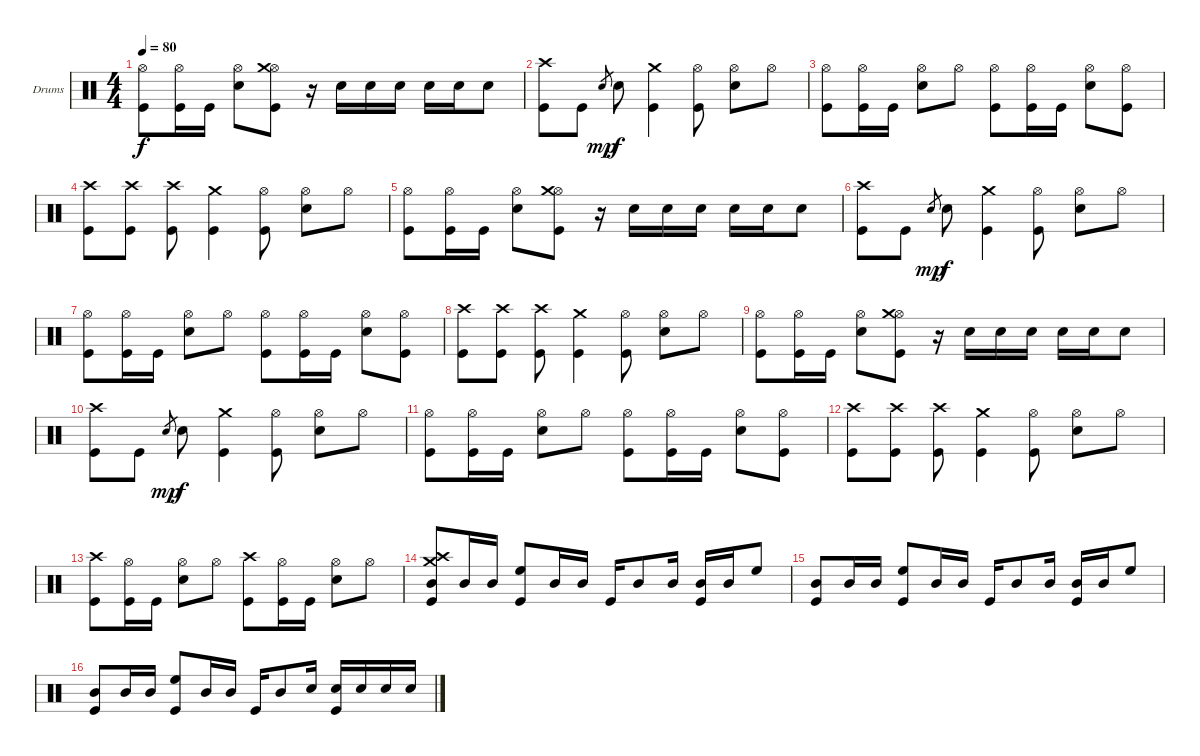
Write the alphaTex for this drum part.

\defaultSystemsLayout 4
\bracketExtendMode groupsimilarinstruments
\firstSystemTrackNameOrientation horizontal
\otherSystemsTrackNameOrientation horizontal
\track ("Drumkit" "Drums") {instrument percussion}
\staff {score}
\articulation defaults
\ts (4 4)
\tempo 80
\clef neutral
\scale
1.02648
\ks c
("Hi-Hat (open)" "Kick (hit)").8{dy f} ("Hi-Hat (open)" "Kick (hit)").16 "Kick (hit)".16 ("Hi-Hat (open)" "Snare (hit) 2").8 ("Hi-Hat (open)" "Crash medium (hit)" "Kick (hit)").8 r.16 "Snare (hit) 2".16 "Snare (hit) 2".16 "Snare (hit) 2".16 "Snare (hit) 2".16 "Snare (hit) 2".16 "Snare (hit) 2".8 |
\scale
0.973518 ("Crash high (hit)" "Kick (hit)").8 "Kick (hit)".8 "Snare (hit) 2".8{gr dy mp} "Snare (hit) 2".8{dy f} ("Crash medium (hit)" "Kick (hit)").4 ("Hi-Hat (open)" "Kick (hit)").8 ("Hi-Hat (open)" "Snare (hit) 2").8 "Hi-Hat (open)".8 |
\scale
1.02648 ("Hi-Hat (open)" "Kick (hit)").8 ("Hi-Hat (open)" "Kick (hit)").16 "Kick (hit)".16 ("Hi-Hat (open)" "Snare (hit) 2").8 "Hi-Hat (open)".8 ("Hi-Hat (open)" "Kick (hit)").8 ("Hi-Hat (open)" "Kick (hit)").16 "Kick (hit)".16 ("Hi-Hat (open)" "Snare (hit) 2").8 ("Hi-Hat (open)" "Kick (hit)").8 |
\scale
0.973518 ("Crash high (hit)" "Kick (hit)").8 ("Crash high (hit)" "Kick (hit)").8 ("Crash high (hit)" "Kick (hit)").8 ("Crash medium (hit)" "Kick (hit)").4 ("Hi-Hat (open)" "Kick (hit)").8 ("Hi-Hat (open)" "Snare (hit) 2").8 "Hi-Hat (open)".8 |
\scale
1.02648 ("Hi-Hat (open)" "Kick (hit)").8 ("Hi-Hat (open)" "Kick (hit)").16 "Kick (hit)".16 ("Hi-Hat (open)" "Snare (hit) 2").8 ("Hi-Hat (open)" "Crash medium (hit)" "Kick (hit)").8 r.16 "Snare (hit) 2".16 "Snare (hit) 2".16 "Snare (hit) 2".16 "Snare (hit) 2".16 "Snare (hit) 2".16 "Snare (hit) 2".8 |
\scale
0.973518 ("Crash high (hit)" "Kick (hit)").8 "Kick (hit)".8 "Snare (hit) 2".8{gr dy mp} "Snare (hit) 2".8{dy f} ("Crash medium (hit)" "Kick (hit)").4 ("Hi-Hat (open)" "Kick (hit)").8 ("Hi-Hat (open)" "Snare (hit) 2").8 "Hi-Hat (open)".8 |
\scale
1.02648 ("Hi-Hat (open)" "Kick (hit)").8 ("Hi-Hat (open)" "Kick (hit)").16 "Kick (hit)".16 ("Hi-Hat (open)" "Snare (hit) 2").8 "Hi-Hat (open)".8 ("Hi-Hat (open)" "Kick (hit)").8 ("Hi-Hat (open)" "Kick (hit)").16 "Kick (hit)".16 ("Hi-Hat (open)" "Snare (hit) 2").8 ("Hi-Hat (open)" "Kick (hit)").8 |
\scale
0.973518 ("Crash high (hit)" "Kick (hit)").8 ("Crash high (hit)" "Kick (hit)").8 ("Crash high (hit)" "Kick (hit)").8 ("Crash medium (hit)" "Kick (hit)").4 ("Hi-Hat (open)" "Kick (hit)").8 ("Hi-Hat (open)" "Snare (hit) 2").8 "Hi-Hat (open)".8 |
\scale
1.02648 ("Hi-Hat (open)" "Kick (hit)").8 ("Hi-Hat (open)" "Kick (hit)").16 "Kick (hit)".16 ("Hi-Hat (open)" "Snare (hit) 2").8 ("Hi-Hat (open)" "Crash medium (hit)" "Kick (hit)").8 r.16 "Snare (hit) 2".16 "Snare (hit) 2".16 "Snare (hit) 2".16 "Snare (hit) 2".16 "Snare (hit) 2".16 "Snare (hit) 2".8 |
\scale
0.973518 ("Crash high (hit)" "Kick (hit)").8 "Kick (hit)".8 "Snare (hit) 2".8{gr dy mp} "Snare (hit) 2".8{dy f} ("Crash medium (hit)" "Kick (hit)").4 ("Hi-Hat (open)" "Kick (hit)").8 ("Hi-Hat (open)" "Snare (hit) 2").8 "Hi-Hat (open)".8 |
\scale
1.02648 ("Hi-Hat (open)" "Kick (hit)").8 ("Hi-Hat (open)" "Kick (hit)").16 "Kick (hit)".16 ("Hi-Hat (open)" "Snare (hit) 2").8 "Hi-Hat (open)".8 ("Hi-Hat (open)" "Kick (hit)").8 ("Hi-Hat (open)" "Kick (hit)").16 "Kick (hit)".16 ("Hi-Hat (open)" "Snare (hit) 2").8 ("Hi-Hat (open)" "Kick (hit)").8 |
\scale
0.973518 ("Crash high (hit)" "Kick (hit)").8 ("Crash high (hit)" "Kick (hit)").8 ("Crash high (hit)" "Kick (hit)").8 ("Crash medium (hit)" "Kick (hit)").4 ("Hi-Hat (open)" "Kick (hit)").8 ("Hi-Hat (open)" "Snare (hit) 2").8 "Hi-Hat (open)".8 |
\scale
1.02648 ("Crash high (hit)" "Kick (hit)").8 ("Hi-Hat (open)" "Kick (hit)").16 "Kick (hit)".16 ("Hi-Hat (open)" "Snare (hit) 2").8 "Hi-Hat (open)".8 ("Crash high (hit)" "Kick (hit)").8 ("Hi-Hat (open)" "Kick (hit)").16 "Kick (hit)".16 ("Hi-Hat (open)" "Snare (hit) 2").8 "Hi-Hat (open)".8 |
\scale
0.973518 ("Crash medium (hit)" "Crash high (hit)" "Mid Tom (hit)" "Kick (hit)").8 "Mid Tom (hit)".16 "Mid Tom (hit)".16 ("High Floor Tom (hit)" "Kick (hit)").8 "Mid Tom (hit)".16 "Mid Tom (hit)".16 "Kick (hit)".16 "Mid Tom (hit)".8 "Mid Tom (hit)".16 ("Mid Tom (hit)" "Kick (hit)").16 "Mid Tom (hit)".16 "High Floor Tom (hit)".8 |
\scale
1.02648 ("Mid Tom (hit)" "Kick (hit)").8 "Mid Tom (hit)".16 "Mid Tom (hit)".16 ("High Floor Tom (hit)" "Kick (hit)").8 "Mid Tom (hit)".16 "Mid Tom (hit)".16 "Kick (hit)".16 "Mid Tom (hit)".8 "Mid Tom (hit)".16 ("Mid Tom (hit)" "Kick (hit)").16 "Mid Tom (hit)".16 "High Floor Tom (hit)".8 |
\scale
0.973518 ("Mid Tom (hit)" "Kick (hit)").8 "Mid Tom (hit)".16 "Mid Tom (hit)".16 ("High Floor Tom (hit)" "Kick (hit)").8 "Mid Tom (hit)".16 "Mid Tom (hit)".16 "Kick (hit)".16 "Mid Tom (hit)".8 "Snare (hit) 2".16 ("Snare (hit) 2" "Kick (hit)").16 "Snare (hit) 2".16 "Snare (hit) 2".16 "Snare (hit) 2".16
